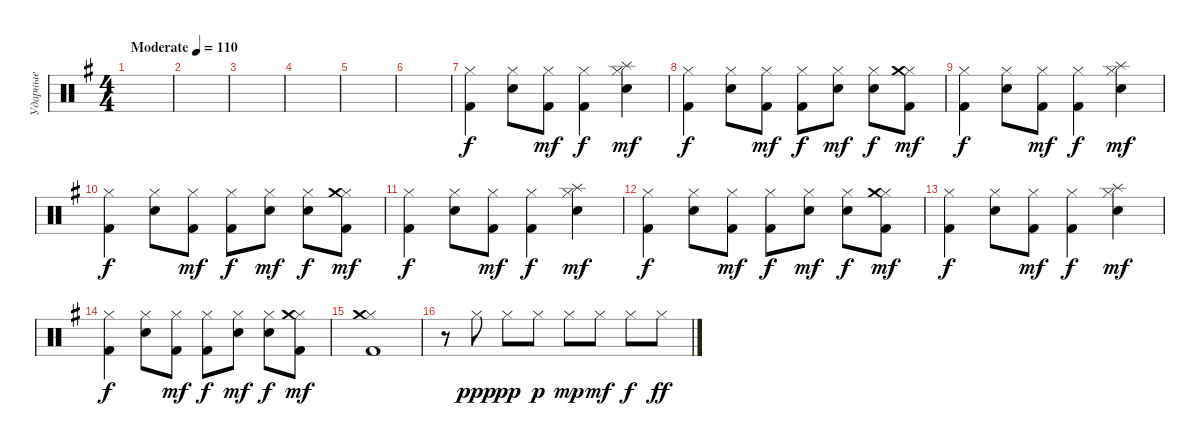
\track ("Ударные" "Ударные") {instrument percussion}
\staff {score}
\articulation defaults
\ts (4 4)
\tempo (110 "Moderate")
\clef neutral
\ks eminor
|
|
|
|
|
|
("Hi-Hat (closed)" "Kick (hit) 2").4 ("Hi-Hat (closed)" "Snare (hit) 2").8 ("Hi-Hat (closed)" "Kick (hit) 2").8{dy mf} ("Hi-Hat (closed)" "Kick (hit) 2").4{dy f} ("Hi-Hat (closed)" "Snare (hit) 2" "Splash (hit)").4{dy mf} |
("Hi-Hat (closed)" "Kick (hit) 2").4{dy f} ("Hi-Hat (closed)" "Snare (hit) 2").8 ("Hi-Hat (closed)" "Kick (hit) 2").8{dy mf} ("Hi-Hat (closed)" "Kick (hit) 2").8{dy f} ("Hi-Hat (closed)" "Snare (hit) 2").8{dy mf} ("Hi-Hat (closed)" "Snare (hit) 2").8{dy f} ("Hi-Hat (closed)" "Crash medium (hit)" "Kick (hit) 2").8{dy mf} |
("Hi-Hat (closed)" "Kick (hit) 2").4{dy f} ("Hi-Hat (closed)" "Snare (hit) 2").8 ("Hi-Hat (closed)" "Kick (hit) 2").8{dy mf} ("Hi-Hat (closed)" "Kick (hit) 2").4{dy f} ("Hi-Hat (closed)" "Snare (hit) 2" "Splash (hit)").4{dy mf} |
("Hi-Hat (closed)" "Kick (hit) 2").4{dy f} ("Hi-Hat (closed)" "Snare (hit) 2").8 ("Hi-Hat (closed)" "Kick (hit) 2").8{dy mf} ("Hi-Hat (closed)" "Kick (hit) 2").8{dy f} ("Hi-Hat (closed)" "Snare (hit) 2").8{dy mf} ("Hi-Hat (closed)" "Snare (hit) 2").8{dy f} ("Hi-Hat (closed)" "Crash medium (hit)" "Kick (hit) 2").8{dy mf} |
("Hi-Hat (closed)" "Kick (hit) 2").4{dy f} ("Hi-Hat (closed)" "Snare (hit) 2").8 ("Hi-Hat (closed)" "Kick (hit) 2").8{dy mf} ("Hi-Hat (closed)" "Kick (hit) 2").4{dy f} ("Hi-Hat (closed)" "Snare (hit) 2" "Splash (hit)").4{dy mf} |
("Hi-Hat (closed)" "Kick (hit) 2").4{dy f} ("Hi-Hat (closed)" "Snare (hit) 2").8 ("Hi-Hat (closed)" "Kick (hit) 2").8{dy mf} ("Hi-Hat (closed)" "Kick (hit) 2").8{dy f} ("Hi-Hat (closed)" "Snare (hit) 2").8{dy mf} ("Hi-Hat (closed)" "Snare (hit) 2").8{dy f} ("Hi-Hat (closed)" "Crash medium (hit)" "Kick (hit) 2").8{dy mf} |
("Hi-Hat (closed)" "Kick (hit) 2").4{dy f} ("Hi-Hat (closed)" "Snare (hit) 2").8 ("Hi-Hat (closed)" "Kick (hit) 2").8{dy mf} ("Hi-Hat (closed)" "Kick (hit) 2").4{dy f} ("Hi-Hat (closed)" "Snare (hit) 2" "Splash (hit)").4{dy mf} |
("Hi-Hat (closed)" "Kick (hit) 2").4{dy f} ("Hi-Hat (closed)" "Snare (hit) 2").8 ("Hi-Hat (closed)" "Kick (hit) 2").8{dy mf} ("Hi-Hat (closed)" "Kick (hit) 2").8{dy f} ("Hi-Hat (closed)" "Snare (hit) 2").8{dy mf} ("Hi-Hat (closed)" "Snare (hit) 2").8{dy f} ("Hi-Hat (closed)" "Crash medium (hit)" "Kick (hit) 2").8{dy mf} |
("Hi-Hat (closed)" "Crash medium (hit)" "Kick (hit) 2").1 |
r.8 "Hi-Hat (closed)".8{dy ppp} "Hi-Hat (closed)".8{dy pp} "Hi-Hat (closed)".8{dy p} "Hi-Hat (closed)".8{dy mp} "Hi-Hat (closed)".8{dy mf} "Hi-Hat (closed)".8{dy f} "Hi-Hat (closed)".8{dy ff}
